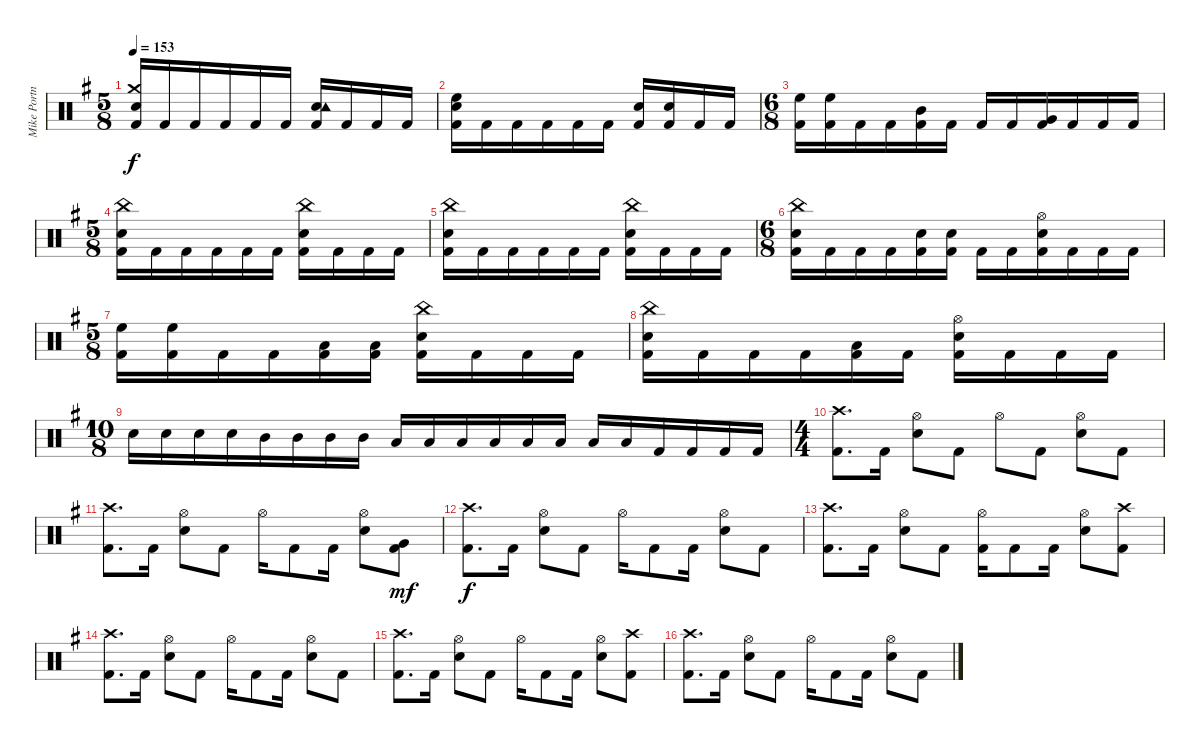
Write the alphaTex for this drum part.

\track ("Mike Portnoy - Drums" "Mike Portn") {instrument percussion}
\staff {score}
\articulation defaults
\ts (5 8)
\tempo 153
\clef neutral
\ks g
("Kick (hit) 2" "Crash medium (hit)" "Electric Snare (hit)").16{dy f} "Kick (hit) 2".16 "Kick (hit) 2".16 "Kick (hit) 2".16 "Kick (hit) 2".16 "Kick (hit) 2".16 ("Kick (hit) 2" "Electric Snare (hit)" "Tambourine (hit)").16 "Kick (hit) 2".16 "Kick (hit) 2".16 "Kick (hit) 2".16 |
("Kick (hit) 2" "Electric Snare (hit)" "High Floor Tom (hit)").16 "Kick (hit) 2".16 "Kick (hit) 2".16 "Kick (hit) 2".16 "Kick (hit) 2".16 "Kick (hit) 2".16 ("Kick (hit) 2" "Electric Snare (hit)").16 ("Kick (hit) 2" "Electric Snare (hit)").16 "Kick (hit) 2".16 "Kick (hit) 2".16 |
\ts (6 8)
("Kick (hit) 2" "High Floor Tom (hit)").16 ("Kick (hit) 2" "High Floor Tom (hit)").16 "Kick (hit) 2".16 "Kick (hit) 2".16 ("Kick (hit) 2" "Mid Tom (hit)").16 "Kick (hit) 2".16 "Kick (hit) 2".16 "Kick (hit) 2".16 ("Kick (hit) 2" "Very Low Tom (hit)").16 "Kick (hit) 2".16 "Kick (hit) 2".16 "Kick (hit) 2".16 |
\ts (5 8)
("Kick (hit) 2" "China (hit)" "Electric Snare (hit)").16 "Kick (hit) 2".16 "Kick (hit) 2".16 "Kick (hit) 2".16 "Kick (hit) 2".16 "Kick (hit) 2".16 ("Kick (hit) 2" "Electric Snare (hit)" "China (hit)").16 "Kick (hit) 2".16 "Kick (hit) 2".16 "Kick (hit) 2".16 |
("Kick (hit) 2" "Electric Snare (hit)" "China (hit)").16 "Kick (hit) 2".16 "Kick (hit) 2".16 "Kick (hit) 2".16 "Kick (hit) 2".16 "Kick (hit) 2".16 ("Kick (hit) 2" "Electric Snare (hit)" "China (hit)").16 "Kick (hit) 2".16 "Kick (hit) 2".16 "Kick (hit) 2".16 |
\ts (6 8)
("Kick (hit) 2" "Electric Snare (hit)" "China (hit)").16 "Kick (hit) 2".16 "Kick (hit) 2".16 "Kick (hit) 2".16 ("Kick (hit) 2" "Electric Snare (hit)").16 ("Kick (hit) 2" "Electric Snare (hit)").16 "Kick (hit) 2".16 "Kick (hit) 2".16 ("Kick (hit) 2" "Electric Snare (hit)" "Hi-Hat (open)").16 "Kick (hit) 2".16 "Kick (hit) 2".16 "Kick (hit) 2".16 |
\ts (5 8)
("Kick (hit) 2" "High Floor Tom (hit)").16 ("Kick (hit) 2" "High Floor Tom (hit)").16 "Kick (hit) 2".16 "Kick (hit) 2".16 ("Kick (hit) 2" "Low Tom (hit)").16 ("Kick (hit) 2" "Low Tom (hit)").16 ("Kick (hit) 2" "Electric Snare (hit)" "China (hit)").16 "Kick (hit) 2".16 "Kick (hit) 2".16 "Kick (hit) 2".16 |
("Kick (hit) 2" "Electric Snare (hit)" "China (hit)").16 "Kick (hit) 2".16 "Kick (hit) 2".16 "Kick (hit) 2".16 ("Kick (hit) 2" "Low Tom (hit)").16 "Kick (hit) 2".16 ("Kick (hit) 2" "Electric Snare (hit)" "Hi-Hat (open)").16 "Kick (hit) 2".16 "Kick (hit) 2".16 "Kick (hit) 2".16 |
\ts (10 8)
"Snare (hit) 2".16 "Snare (hit) 2".16 "Snare (hit) 2".16 "Snare (hit) 2".16 "Mid Tom (hit)".16 "Mid Tom (hit)".16 "Mid Tom (hit)".16 "Mid Tom (hit)".16 "Low Tom (hit)".16 "Low Tom (hit)".16 "Low Tom (hit)".16 "Low Tom (hit)".16 "Low Floor Tom (hit)".16 "Low Floor Tom (hit)".16 "Low Floor Tom (hit)".16 "Low Floor Tom (hit)".16 "Kick (hit) 2".16 "Kick (hit) 2".16 "Kick (hit) 2".16 "Kick (hit) 2".16 |
\ts (4 4)
("Crash high (hit)" "Kick (hit) 2").8{d} "Kick (hit) 2".16 ("Electric Snare (hit)" "Hi-Hat (open)").8 "Kick (hit) 2".8 "Hi-Hat (open)".8 "Kick (hit) 2".8 ("Electric Snare (hit)" "Hi-Hat (open)").8 "Kick (hit) 2".8 |
("Kick (hit) 2" "Crash high (hit)").8{d} "Kick (hit) 2".16 ("Electric Snare (hit)" "Hi-Hat (open)").8 "Kick (hit) 2".8 "Hi-Hat (open)".16 "Kick (hit) 2".8 "Kick (hit) 2".16 ("Electric Snare (hit)" "Hi-Hat (open)").8 ("Kick (hit) 2" "Very Low Tom (hit)").8{dy mf} |
("Crash high (hit)" "Kick (hit) 2").8{d dy f} "Kick (hit) 2".16 ("Electric Snare (hit)" "Hi-Hat (open)").8 "Kick (hit) 2".8 "Hi-Hat (open)".16 "Kick (hit) 2".8 "Kick (hit) 2".16 ("Electric Snare (hit)" "Hi-Hat (open)").8 "Kick (hit) 2".8 |
("Kick (hit) 2" "Crash high (hit)").8{d} "Kick (hit) 2".16 ("Electric Snare (hit)" "Hi-Hat (open)").8 "Kick (hit) 2".8 ("Hi-Hat (open)" "Kick (hit) 2").16 "Kick (hit) 2".8 "Kick (hit) 2".16 ("Electric Snare (hit)" "Hi-Hat (open)").8 ("Kick (hit) 2" "Crash high (hit)").8 |
("Kick (hit) 2" "Crash high (hit)").8{d} "Kick (hit) 2".16 ("Electric Snare (hit)" "Hi-Hat (open)").8 "Kick (hit) 2".8 "Hi-Hat (open)".16 "Kick (hit) 2".8 "Kick (hit) 2".16 ("Electric Snare (hit)" "Hi-Hat (open)").8 "Kick (hit) 2".8 |
("Kick (hit) 2" "Crash high (hit)").8{d} "Kick (hit) 2".16 ("Electric Snare (hit)" "Hi-Hat (open)").8 "Kick (hit) 2".8 "Hi-Hat (open)".16 "Kick (hit) 2".8 "Kick (hit) 2".16 ("Electric Snare (hit)" "Hi-Hat (open)").8 ("Kick (hit) 2" "Crash high (hit)").8 |
("Crash high (hit)" "Kick (hit) 2").8{d} "Kick (hit) 2".16 ("Electric Snare (hit)" "Hi-Hat (open)").8 "Kick (hit) 2".8 "Hi-Hat (open)".16 "Kick (hit) 2".8 "Kick (hit) 2".16 ("Electric Snare (hit)" "Hi-Hat (open)").8 "Kick (hit) 2".8
